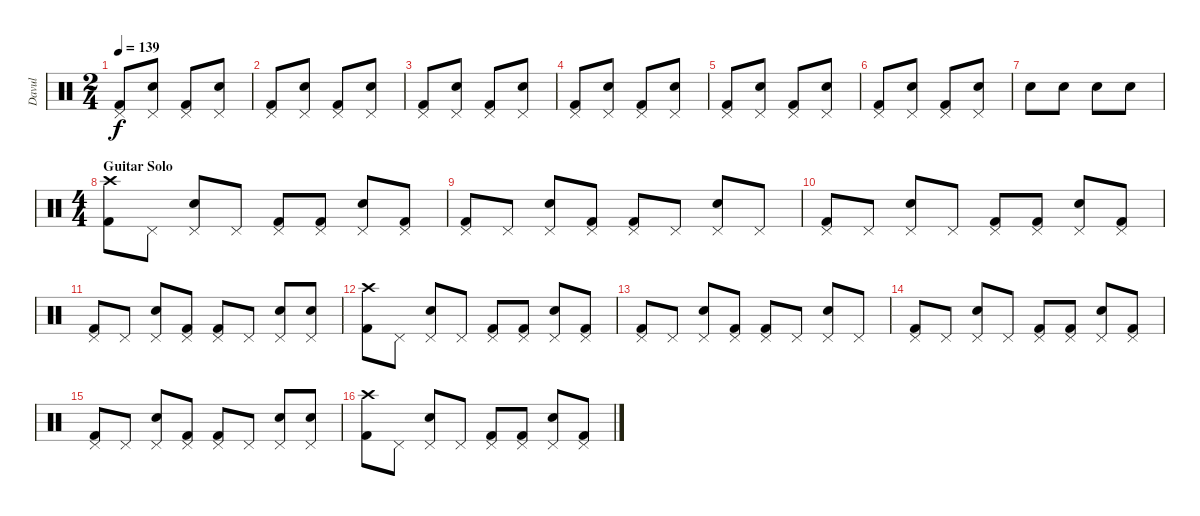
\track ("Davul" "Davul") {instrument percussion}
\staff {score}
\articulation defaults
\ts (2 4)
\tempo 139
\clef neutral
\ks c
("Pedal Hi-Hat (hit)" "Kick (hit) 2").8{dy f} ("Pedal Hi-Hat (hit)" "Snare (hit) 2").8 ("Pedal Hi-Hat (hit)" "Kick (hit) 2").8 ("Pedal Hi-Hat (hit)" "Snare (hit) 2").8 |
("Pedal Hi-Hat (hit)" "Kick (hit) 2").8 ("Pedal Hi-Hat (hit)" "Snare (hit) 2").8 ("Pedal Hi-Hat (hit)" "Kick (hit) 2").8 ("Pedal Hi-Hat (hit)" "Snare (hit) 2").8 |
("Pedal Hi-Hat (hit)" "Kick (hit) 2").8 ("Pedal Hi-Hat (hit)" "Snare (hit) 2").8 ("Pedal Hi-Hat (hit)" "Kick (hit) 2").8 ("Pedal Hi-Hat (hit)" "Snare (hit) 2").8 |
("Pedal Hi-Hat (hit)" "Kick (hit) 2").8 ("Pedal Hi-Hat (hit)" "Snare (hit) 2").8 ("Pedal Hi-Hat (hit)" "Kick (hit) 2").8 ("Pedal Hi-Hat (hit)" "Snare (hit) 2").8 |
("Pedal Hi-Hat (hit)" "Kick (hit) 2").8 ("Pedal Hi-Hat (hit)" "Snare (hit) 2").8 ("Pedal Hi-Hat (hit)" "Kick (hit) 2").8 ("Pedal Hi-Hat (hit)" "Snare (hit) 2").8 |
("Pedal Hi-Hat (hit)" "Kick (hit) 2").8 ("Pedal Hi-Hat (hit)" "Snare (hit) 2").8 ("Pedal Hi-Hat (hit)" "Kick (hit) 2").8 ("Pedal Hi-Hat (hit)" "Snare (hit) 2").8 |
"Snare (hit) 2".8 "Snare (hit) 2".8 "Snare (hit) 2".8 "Snare (hit) 2".8 |
\ts (4 4)
\section ("" "Guitar Solo")
("Crash high (hit)" "Kick (hit) 2").8 "Pedal Hi-Hat (hit)".8 ("Pedal Hi-Hat (hit)" "Snare (hit) 2").8 "Pedal Hi-Hat (hit)".8 ("Pedal Hi-Hat (hit)" "Kick (hit) 2").8 ("Pedal Hi-Hat (hit)" "Kick (hit) 2").8 ("Pedal Hi-Hat (hit)" "Snare (hit) 2").8 ("Pedal Hi-Hat (hit)" "Kick (hit) 2").8 |
("Pedal Hi-Hat (hit)" "Kick (hit) 2").8 "Pedal Hi-Hat (hit)".8 ("Pedal Hi-Hat (hit)" "Snare (hit) 2").8 ("Pedal Hi-Hat (hit)" "Kick (hit) 2").8 ("Pedal Hi-Hat (hit)" "Kick (hit) 2").8 "Pedal Hi-Hat (hit)".8 ("Pedal Hi-Hat (hit)" "Snare (hit) 2").8 "Pedal Hi-Hat (hit)".8 |
("Pedal Hi-Hat (hit)" "Kick (hit) 2").8 "Pedal Hi-Hat (hit)".8 ("Pedal Hi-Hat (hit)" "Snare (hit) 2").8 "Pedal Hi-Hat (hit)".8 ("Pedal Hi-Hat (hit)" "Kick (hit) 2").8 ("Pedal Hi-Hat (hit)" "Kick (hit) 2").8 ("Pedal Hi-Hat (hit)" "Snare (hit) 2").8 ("Pedal Hi-Hat (hit)" "Kick (hit) 2").8 |
("Pedal Hi-Hat (hit)" "Kick (hit) 2").8 "Pedal Hi-Hat (hit)".8 ("Pedal Hi-Hat (hit)" "Snare (hit) 2").8 ("Pedal Hi-Hat (hit)" "Kick (hit) 2").8 ("Pedal Hi-Hat (hit)" "Kick (hit) 2").8 "Pedal Hi-Hat (hit)".8 ("Pedal Hi-Hat (hit)" "Snare (hit) 2").8 ("Pedal Hi-Hat (hit)" "Snare (hit) 2").8 |
("Crash high (hit)" "Kick (hit) 2").8 "Pedal Hi-Hat (hit)".8 ("Pedal Hi-Hat (hit)" "Snare (hit) 2").8 "Pedal Hi-Hat (hit)".8 ("Pedal Hi-Hat (hit)" "Kick (hit) 2").8 ("Pedal Hi-Hat (hit)" "Kick (hit) 2").8 ("Pedal Hi-Hat (hit)" "Snare (hit) 2").8 ("Pedal Hi-Hat (hit)" "Kick (hit) 2").8 |
("Pedal Hi-Hat (hit)" "Kick (hit) 2").8 "Pedal Hi-Hat (hit)".8 ("Pedal Hi-Hat (hit)" "Snare (hit) 2").8 ("Pedal Hi-Hat (hit)" "Kick (hit) 2").8 ("Pedal Hi-Hat (hit)" "Kick (hit) 2").8 "Pedal Hi-Hat (hit)".8 ("Pedal Hi-Hat (hit)" "Snare (hit) 2").8 "Pedal Hi-Hat (hit)".8 |
("Pedal Hi-Hat (hit)" "Kick (hit) 2").8 "Pedal Hi-Hat (hit)".8 ("Pedal Hi-Hat (hit)" "Snare (hit) 2").8 "Pedal Hi-Hat (hit)".8 ("Pedal Hi-Hat (hit)" "Kick (hit) 2").8 ("Pedal Hi-Hat (hit)" "Kick (hit) 2").8 ("Pedal Hi-Hat (hit)" "Snare (hit) 2").8 ("Pedal Hi-Hat (hit)" "Kick (hit) 2").8 |
("Pedal Hi-Hat (hit)" "Kick (hit) 2").8 "Pedal Hi-Hat (hit)".8 ("Pedal Hi-Hat (hit)" "Snare (hit) 2").8 ("Pedal Hi-Hat (hit)" "Kick (hit) 2").8 ("Pedal Hi-Hat (hit)" "Kick (hit) 2").8 "Pedal Hi-Hat (hit)".8 ("Pedal Hi-Hat (hit)" "Snare (hit) 2").8 ("Pedal Hi-Hat (hit)" "Snare (hit) 2").8 |
("Crash high (hit)" "Kick (hit) 2").8 "Pedal Hi-Hat (hit)".8 ("Pedal Hi-Hat (hit)" "Snare (hit) 2").8 "Pedal Hi-Hat (hit)".8 ("Pedal Hi-Hat (hit)" "Kick (hit) 2").8 ("Pedal Hi-Hat (hit)" "Kick (hit) 2").8 ("Pedal Hi-Hat (hit)" "Snare (hit) 2").8 ("Pedal Hi-Hat (hit)" "Kick (hit) 2").8
